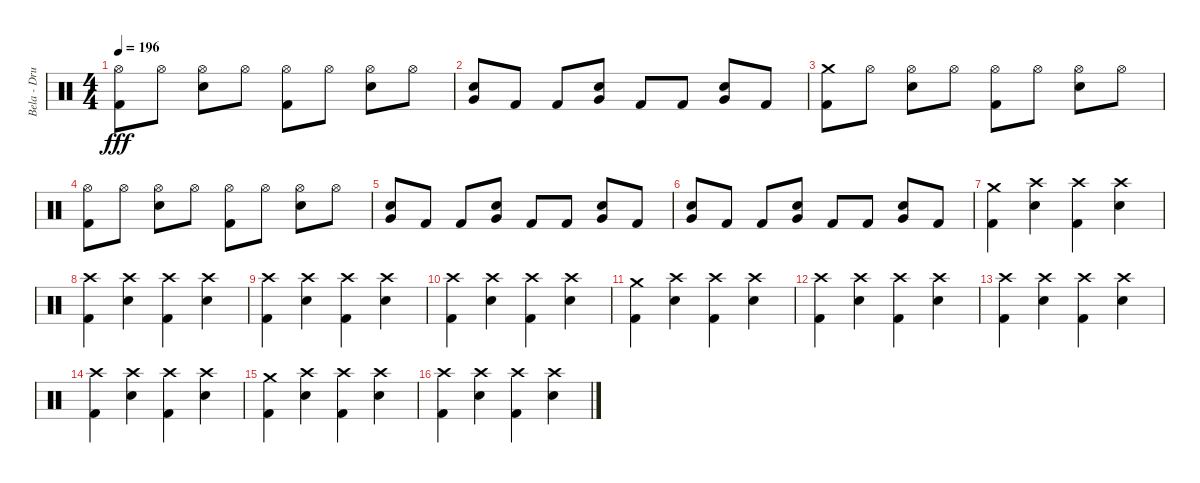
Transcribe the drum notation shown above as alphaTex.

\track ("Bela - Drums" "Bela - Dru") {instrument percussion}
\staff {score}
\articulation defaults
\ts (4 4)
\tempo 196
\clef neutral
\ks c
("Hi-Hat (open)" "Kick (hit) 2").8{dy fff} "Hi-Hat (open)".8 ("Hi-Hat (open)" "Electric Snare (hit)").8 "Hi-Hat (open)".8 ("Hi-Hat (open)" "Kick (hit) 2").8 "Hi-Hat (open)".8 ("Hi-Hat (open)" "Electric Snare (hit)").8 "Hi-Hat (open)".8 |
("Electric Snare (hit)" "Very Low Tom (hit)").8 "Kick (hit) 2".8 "Kick (hit) 2".8 ("Electric Snare (hit)" "Very Low Tom (hit)").8 "Kick (hit) 2".8 "Kick (hit) 2".8 ("Electric Snare (hit)" "Very Low Tom (hit)").8 "Kick (hit) 2".8 |
("Crash medium (hit)" "Kick (hit) 2").8 "Hi-Hat (open)".8 ("Hi-Hat (open)" "Electric Snare (hit)").8 "Hi-Hat (open)".8 ("Hi-Hat (open)" "Kick (hit) 2").8 "Hi-Hat (open)".8 ("Hi-Hat (open)" "Electric Snare (hit)").8 "Hi-Hat (open)".8 |
("Hi-Hat (open)" "Kick (hit) 2").8 "Hi-Hat (open)".8 ("Hi-Hat (open)" "Electric Snare (hit)").8 "Hi-Hat (open)".8 ("Hi-Hat (open)" "Kick (hit) 2").8 "Hi-Hat (open)".8 ("Hi-Hat (open)" "Electric Snare (hit)").8 "Hi-Hat (open)".8 |
("Electric Snare (hit)" "Very Low Tom (hit)").8 "Kick (hit) 2".8 "Kick (hit) 2".8 ("Electric Snare (hit)" "Very Low Tom (hit)").8 "Kick (hit) 2".8 "Kick (hit) 2".8 ("Electric Snare (hit)" "Very Low Tom (hit)").8 "Kick (hit) 2".8 |
("Electric Snare (hit)" "Very Low Tom (hit)").8 "Kick (hit) 2".8 "Kick (hit) 2".8 ("Electric Snare (hit)" "Very Low Tom (hit)").8 "Kick (hit) 2".8 "Kick (hit) 2".8 ("Electric Snare (hit)" "Very Low Tom (hit)").8 "Kick (hit) 2".8 |
("Crash medium (hit)" "Kick (hit) 2").4 ("Crash high (hit)" "Electric Snare (hit)").4 ("Crash high (hit)" "Kick (hit) 2").4 ("Crash high (hit)" "Electric Snare (hit)").4 |
("Crash high (hit)" "Kick (hit) 2").4 ("Crash high (hit)" "Electric Snare (hit)").4 ("Crash high (hit)" "Kick (hit) 2").4 ("Crash high (hit)" "Electric Snare (hit)").4 |
("Crash high (hit)" "Kick (hit) 2").4 ("Crash high (hit)" "Electric Snare (hit)").4 ("Crash high (hit)" "Kick (hit) 2").4 ("Crash high (hit)" "Electric Snare (hit)").4 |
("Crash high (hit)" "Kick (hit) 2").4 ("Crash high (hit)" "Electric Snare (hit)").4 ("Crash high (hit)" "Kick (hit) 2").4 ("Crash high (hit)" "Electric Snare (hit)").4 |
("Crash medium (hit)" "Kick (hit) 2").4 ("Crash high (hit)" "Electric Snare (hit)").4 ("Crash high (hit)" "Kick (hit) 2").4 ("Crash high (hit)" "Electric Snare (hit)").4 |
("Crash high (hit)" "Kick (hit) 2").4 ("Crash high (hit)" "Electric Snare (hit)").4 ("Crash high (hit)" "Kick (hit) 2").4 ("Crash high (hit)" "Electric Snare (hit)").4 |
("Crash high (hit)" "Kick (hit) 2").4 ("Crash high (hit)" "Electric Snare (hit)").4 ("Crash high (hit)" "Kick (hit) 2").4 ("Crash high (hit)" "Electric Snare (hit)").4 |
("Crash high (hit)" "Kick (hit) 2").4 ("Crash high (hit)" "Electric Snare (hit)").4 ("Crash high (hit)" "Kick (hit) 2").4 ("Crash high (hit)" "Electric Snare (hit)").4 |
("Crash medium (hit)" "Kick (hit) 2").4 ("Crash high (hit)" "Electric Snare (hit)").4 ("Crash high (hit)" "Kick (hit) 2").4 ("Crash high (hit)" "Electric Snare (hit)").4 |
("Crash high (hit)" "Kick (hit) 2").4 ("Crash high (hit)" "Electric Snare (hit)").4 ("Crash high (hit)" "Kick (hit) 2").4 ("Crash high (hit)" "Electric Snare (hit)").4
